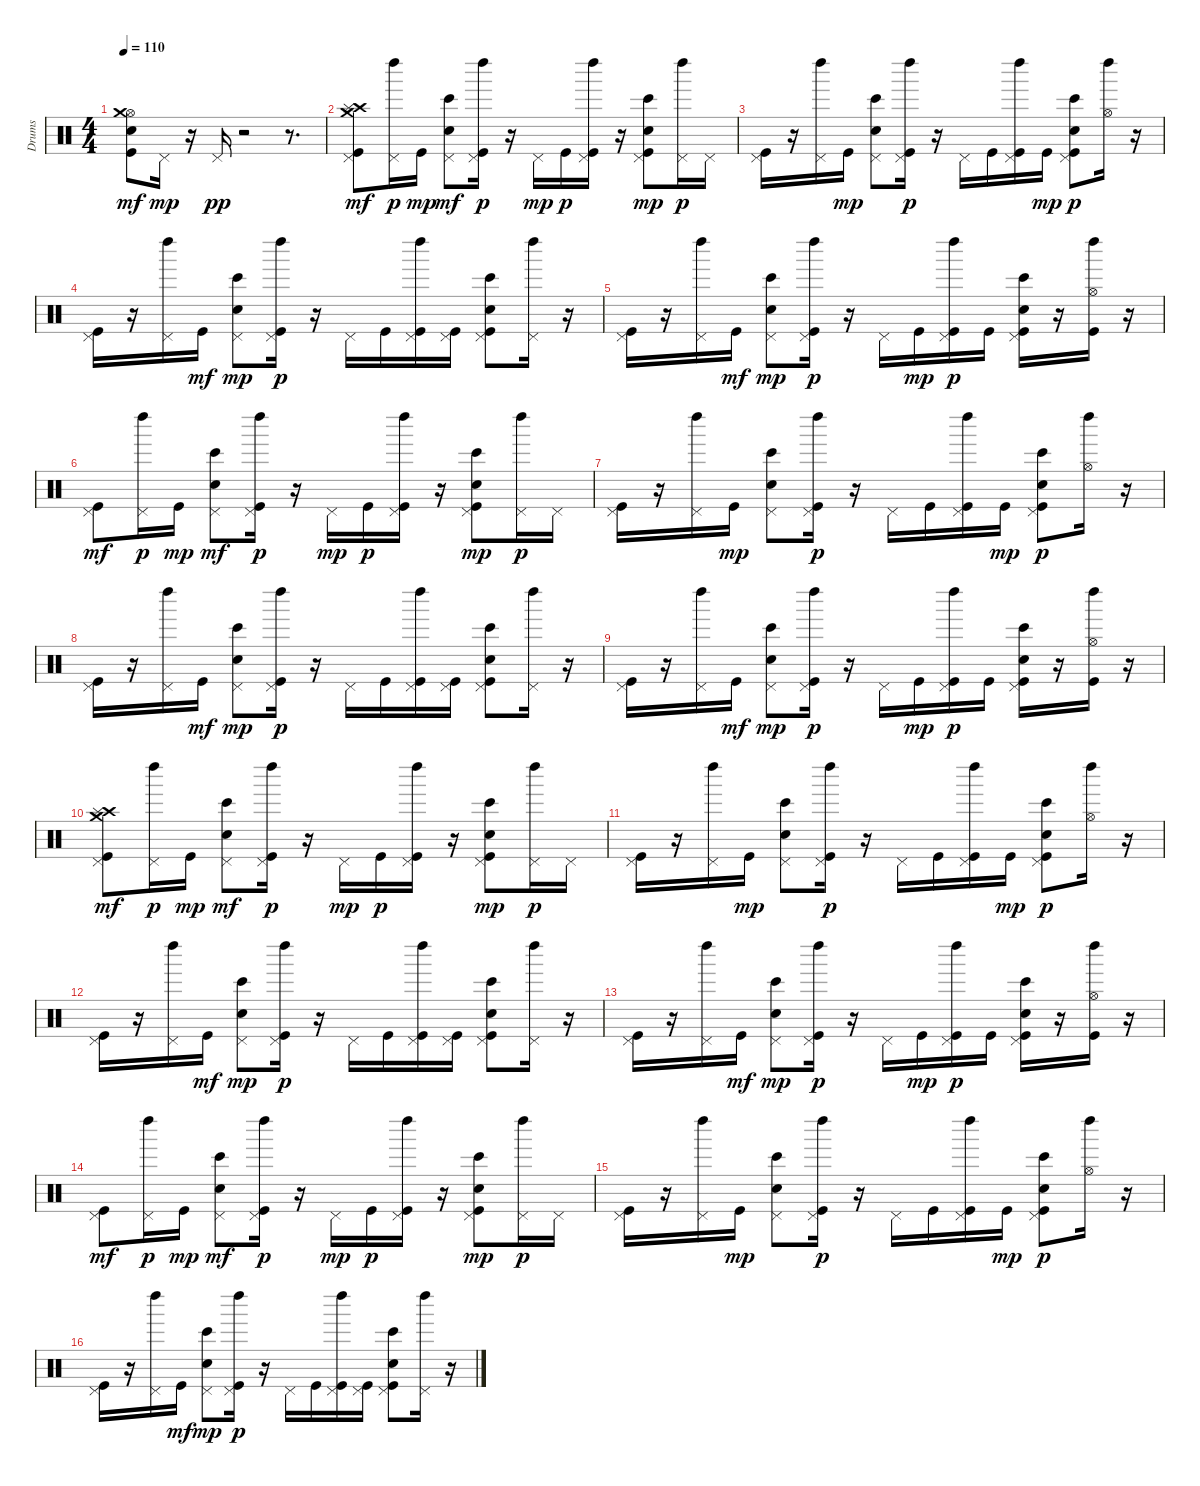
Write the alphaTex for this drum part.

\track ("Drums" "Drums") {instrument percussion}
\staff {score}
\articulation defaults
\ts (4 4)
\tempo 110
\clef neutral
\ks c
("Kick (hit)" "Hand Clap (hit)" "Hi-Hat (open)" "Crash medium (hit)").8{dy mf} "Pedal Hi-Hat (hit)".16{dy mp} r.16 "Pedal Hi-Hat (hit)".16{dy pp} r.2 r.8{d} |
("Kick (hit)" "Pedal Hi-Hat (hit)" "Crash high (hit)" "Splash (hit)" "Crash medium (hit)").8{dy mf} ("Pedal Hi-Hat (hit)" "Left Maraca (hit)").16{dy p} "Kick (hit)".16{dy mp} ("Bongo High (hit)" "Electric Snare (hit)" "Pedal Hi-Hat (hit)").8{dy mf} ("Kick (hit)" "Pedal Hi-Hat (hit)" "Left Maraca (hit)").16{dy p} r.16 "Pedal Hi-Hat (hit)".16{dy mp} "Kick (hit)".16{dy p} ("Kick (hit)" "Pedal Hi-Hat (hit)" "Left Maraca (hit)").16 r.16 ("Bongo High (hit)" "Kick (hit)" "Electric Snare (hit)" "Pedal Hi-Hat (hit)").8{dy mp} ("Pedal Hi-Hat (hit)" "Left Maraca (hit)").16{dy p} "Pedal Hi-Hat (hit)".16 |
("Kick (hit)" "Pedal Hi-Hat (hit)").16 r.16 ("Pedal Hi-Hat (hit)" "Left Maraca (hit)").16 "Kick (hit)".16{dy mp} ("Bongo High (hit)" "Electric Snare (hit)" "Pedal Hi-Hat (hit)").8 ("Kick (hit)" "Pedal Hi-Hat (hit)" "Left Maraca (hit)").16{dy p} r.16 "Pedal Hi-Hat (hit)".16 "Kick (hit)".16 ("Kick (hit)" "Pedal Hi-Hat (hit)" "Left Maraca (hit)").16 "Kick (hit)".16{dy mp} ("Bongo High (hit)" "Kick (hit)" "Electric Snare (hit)" "Pedal Hi-Hat (hit)").8{dy p} ("Hi-Hat (open)" "Left Maraca (hit)").16 r.16 |
("Kick (hit)" "Pedal Hi-Hat (hit)").16 r.16 ("Pedal Hi-Hat (hit)" "Left Maraca (hit)").16 "Kick (hit)".16{dy mf} ("Bongo High (hit)" "Electric Snare (hit)" "Pedal Hi-Hat (hit)").8{dy mp} ("Kick (hit)" "Pedal Hi-Hat (hit)" "Left Maraca (hit)").16{dy p} r.16 "Pedal Hi-Hat (hit)".16 "Kick (hit)".16 ("Kick (hit)" "Pedal Hi-Hat (hit)" "Left Maraca (hit)").16 ("Kick (hit)" "Pedal Hi-Hat (hit)").16 ("Bongo High (hit)" "Kick (hit)" "Electric Snare (hit)" "Pedal Hi-Hat (hit)").8 ("Pedal Hi-Hat (hit)" "Left Maraca (hit)").16 r.16 |
("Kick (hit)" "Pedal Hi-Hat (hit)").16 r.16 ("Pedal Hi-Hat (hit)" "Left Maraca (hit)").16 "Kick (hit)".16{dy mf} ("Bongo High (hit)" "Electric Snare (hit)" "Pedal Hi-Hat (hit)").8{dy mp} ("Kick (hit)" "Pedal Hi-Hat (hit)" "Left Maraca (hit)").16{dy p} r.16 "Pedal Hi-Hat (hit)".16 "Kick (hit)".16{dy mp} ("Kick (hit)" "Pedal Hi-Hat (hit)" "Left Maraca (hit)").16{dy p} "Kick (hit)".16 ("Bongo High (hit)" "Kick (hit)" "Electric Snare (hit)" "Pedal Hi-Hat (hit)").16 r.16 ("Kick (hit)" "Hi-Hat (open)" "Left Maraca (hit)").16 r.16 |
("Kick (hit)" "Pedal Hi-Hat (hit)").8{dy mf} ("Pedal Hi-Hat (hit)" "Left Maraca (hit)").16{dy p} "Kick (hit)".16{dy mp} ("Bongo High (hit)" "Electric Snare (hit)" "Pedal Hi-Hat (hit)").8{dy mf} ("Kick (hit)" "Pedal Hi-Hat (hit)" "Left Maraca (hit)").16{dy p} r.16 "Pedal Hi-Hat (hit)".16{dy mp} "Kick (hit)".16{dy p} ("Kick (hit)" "Pedal Hi-Hat (hit)" "Left Maraca (hit)").16 r.16 ("Bongo High (hit)" "Kick (hit)" "Electric Snare (hit)" "Pedal Hi-Hat (hit)").8{dy mp} ("Pedal Hi-Hat (hit)" "Left Maraca (hit)").16{dy p} "Pedal Hi-Hat (hit)".16 |
("Kick (hit)" "Pedal Hi-Hat (hit)").16 r.16 ("Pedal Hi-Hat (hit)" "Left Maraca (hit)").16 "Kick (hit)".16{dy mp} ("Bongo High (hit)" "Electric Snare (hit)" "Pedal Hi-Hat (hit)").8 ("Kick (hit)" "Pedal Hi-Hat (hit)" "Left Maraca (hit)").16{dy p} r.16 "Pedal Hi-Hat (hit)".16 "Kick (hit)".16 ("Kick (hit)" "Pedal Hi-Hat (hit)" "Left Maraca (hit)").16 "Kick (hit)".16{dy mp} ("Bongo High (hit)" "Kick (hit)" "Electric Snare (hit)" "Pedal Hi-Hat (hit)").8{dy p} ("Hi-Hat (open)" "Left Maraca (hit)").16 r.16 |
("Kick (hit)" "Pedal Hi-Hat (hit)").16 r.16 ("Pedal Hi-Hat (hit)" "Left Maraca (hit)").16 "Kick (hit)".16{dy mf} ("Bongo High (hit)" "Electric Snare (hit)" "Pedal Hi-Hat (hit)").8{dy mp} ("Kick (hit)" "Pedal Hi-Hat (hit)" "Left Maraca (hit)").16{dy p} r.16 "Pedal Hi-Hat (hit)".16 "Kick (hit)".16 ("Kick (hit)" "Pedal Hi-Hat (hit)" "Left Maraca (hit)").16 ("Kick (hit)" "Pedal Hi-Hat (hit)").16 ("Bongo High (hit)" "Kick (hit)" "Electric Snare (hit)" "Pedal Hi-Hat (hit)").8 ("Pedal Hi-Hat (hit)" "Left Maraca (hit)").16 r.16 |
("Kick (hit)" "Pedal Hi-Hat (hit)").16 r.16 ("Pedal Hi-Hat (hit)" "Left Maraca (hit)").16 "Kick (hit)".16{dy mf} ("Bongo High (hit)" "Electric Snare (hit)" "Pedal Hi-Hat (hit)").8{dy mp} ("Kick (hit)" "Pedal Hi-Hat (hit)" "Left Maraca (hit)").16{dy p} r.16 "Pedal Hi-Hat (hit)".16 "Kick (hit)".16{dy mp} ("Kick (hit)" "Pedal Hi-Hat (hit)" "Left Maraca (hit)").16{dy p} "Kick (hit)".16 ("Bongo High (hit)" "Kick (hit)" "Electric Snare (hit)" "Pedal Hi-Hat (hit)").16 r.16 ("Kick (hit)" "Hi-Hat (open)" "Left Maraca (hit)").16 r.16 |
("Kick (hit)" "Pedal Hi-Hat (hit)" "Crash high (hit)" "Splash (hit)" "Crash medium (hit)").8{dy mf} ("Pedal Hi-Hat (hit)" "Left Maraca (hit)").16{dy p} "Kick (hit)".16{dy mp} ("Bongo High (hit)" "Electric Snare (hit)" "Pedal Hi-Hat (hit)").8{dy mf} ("Kick (hit)" "Pedal Hi-Hat (hit)" "Left Maraca (hit)").16{dy p} r.16 "Pedal Hi-Hat (hit)".16{dy mp} "Kick (hit)".16{dy p} ("Kick (hit)" "Pedal Hi-Hat (hit)" "Left Maraca (hit)").16 r.16 ("Bongo High (hit)" "Kick (hit)" "Electric Snare (hit)" "Pedal Hi-Hat (hit)").8{dy mp} ("Pedal Hi-Hat (hit)" "Left Maraca (hit)").16{dy p} "Pedal Hi-Hat (hit)".16 |
("Kick (hit)" "Pedal Hi-Hat (hit)").16 r.16 ("Pedal Hi-Hat (hit)" "Left Maraca (hit)").16 "Kick (hit)".16{dy mp} ("Bongo High (hit)" "Electric Snare (hit)" "Pedal Hi-Hat (hit)").8 ("Kick (hit)" "Pedal Hi-Hat (hit)" "Left Maraca (hit)").16{dy p} r.16 "Pedal Hi-Hat (hit)".16 "Kick (hit)".16 ("Kick (hit)" "Pedal Hi-Hat (hit)" "Left Maraca (hit)").16 "Kick (hit)".16{dy mp} ("Bongo High (hit)" "Kick (hit)" "Electric Snare (hit)" "Pedal Hi-Hat (hit)").8{dy p} ("Hi-Hat (open)" "Left Maraca (hit)").16 r.16 |
("Kick (hit)" "Pedal Hi-Hat (hit)").16 r.16 ("Pedal Hi-Hat (hit)" "Left Maraca (hit)").16 "Kick (hit)".16{dy mf} ("Bongo High (hit)" "Electric Snare (hit)" "Pedal Hi-Hat (hit)").8{dy mp} ("Kick (hit)" "Pedal Hi-Hat (hit)" "Left Maraca (hit)").16{dy p} r.16 "Pedal Hi-Hat (hit)".16 "Kick (hit)".16 ("Kick (hit)" "Pedal Hi-Hat (hit)" "Left Maraca (hit)").16 ("Kick (hit)" "Pedal Hi-Hat (hit)").16 ("Bongo High (hit)" "Kick (hit)" "Electric Snare (hit)" "Pedal Hi-Hat (hit)").8 ("Pedal Hi-Hat (hit)" "Left Maraca (hit)").16 r.16 |
("Kick (hit)" "Pedal Hi-Hat (hit)").16 r.16 ("Pedal Hi-Hat (hit)" "Left Maraca (hit)").16 "Kick (hit)".16{dy mf} ("Bongo High (hit)" "Electric Snare (hit)" "Pedal Hi-Hat (hit)").8{dy mp} ("Kick (hit)" "Pedal Hi-Hat (hit)" "Left Maraca (hit)").16{dy p} r.16 "Pedal Hi-Hat (hit)".16 "Kick (hit)".16{dy mp} ("Kick (hit)" "Pedal Hi-Hat (hit)" "Left Maraca (hit)").16{dy p} "Kick (hit)".16 ("Bongo High (hit)" "Kick (hit)" "Electric Snare (hit)" "Pedal Hi-Hat (hit)").16 r.16 ("Kick (hit)" "Hi-Hat (open)" "Left Maraca (hit)").16 r.16 |
("Kick (hit)" "Pedal Hi-Hat (hit)").8{dy mf} ("Pedal Hi-Hat (hit)" "Left Maraca (hit)").16{dy p} "Kick (hit)".16{dy mp} ("Bongo High (hit)" "Electric Snare (hit)" "Pedal Hi-Hat (hit)").8{dy mf} ("Kick (hit)" "Pedal Hi-Hat (hit)" "Left Maraca (hit)").16{dy p} r.16 "Pedal Hi-Hat (hit)".16{dy mp} "Kick (hit)".16{dy p} ("Kick (hit)" "Pedal Hi-Hat (hit)" "Left Maraca (hit)").16 r.16 ("Bongo High (hit)" "Kick (hit)" "Electric Snare (hit)" "Pedal Hi-Hat (hit)").8{dy mp} ("Pedal Hi-Hat (hit)" "Left Maraca (hit)").16{dy p} "Pedal Hi-Hat (hit)".16 |
("Kick (hit)" "Pedal Hi-Hat (hit)").16 r.16 ("Pedal Hi-Hat (hit)" "Left Maraca (hit)").16 "Kick (hit)".16{dy mp} ("Bongo High (hit)" "Electric Snare (hit)" "Pedal Hi-Hat (hit)").8 ("Kick (hit)" "Pedal Hi-Hat (hit)" "Left Maraca (hit)").16{dy p} r.16 "Pedal Hi-Hat (hit)".16 "Kick (hit)".16 ("Kick (hit)" "Pedal Hi-Hat (hit)" "Left Maraca (hit)").16 "Kick (hit)".16{dy mp} ("Bongo High (hit)" "Kick (hit)" "Electric Snare (hit)" "Pedal Hi-Hat (hit)").8{dy p} ("Hi-Hat (open)" "Left Maraca (hit)").16 r.16 |
("Kick (hit)" "Pedal Hi-Hat (hit)").16 r.16 ("Pedal Hi-Hat (hit)" "Left Maraca (hit)").16 "Kick (hit)".16{dy mf} ("Bongo High (hit)" "Electric Snare (hit)" "Pedal Hi-Hat (hit)").8{dy mp} ("Kick (hit)" "Pedal Hi-Hat (hit)" "Left Maraca (hit)").16{dy p} r.16 "Pedal Hi-Hat (hit)".16 "Kick (hit)".16 ("Kick (hit)" "Pedal Hi-Hat (hit)" "Left Maraca (hit)").16 ("Kick (hit)" "Pedal Hi-Hat (hit)").16 ("Bongo High (hit)" "Kick (hit)" "Electric Snare (hit)" "Pedal Hi-Hat (hit)").8 ("Pedal Hi-Hat (hit)" "Left Maraca (hit)").16 r.16
